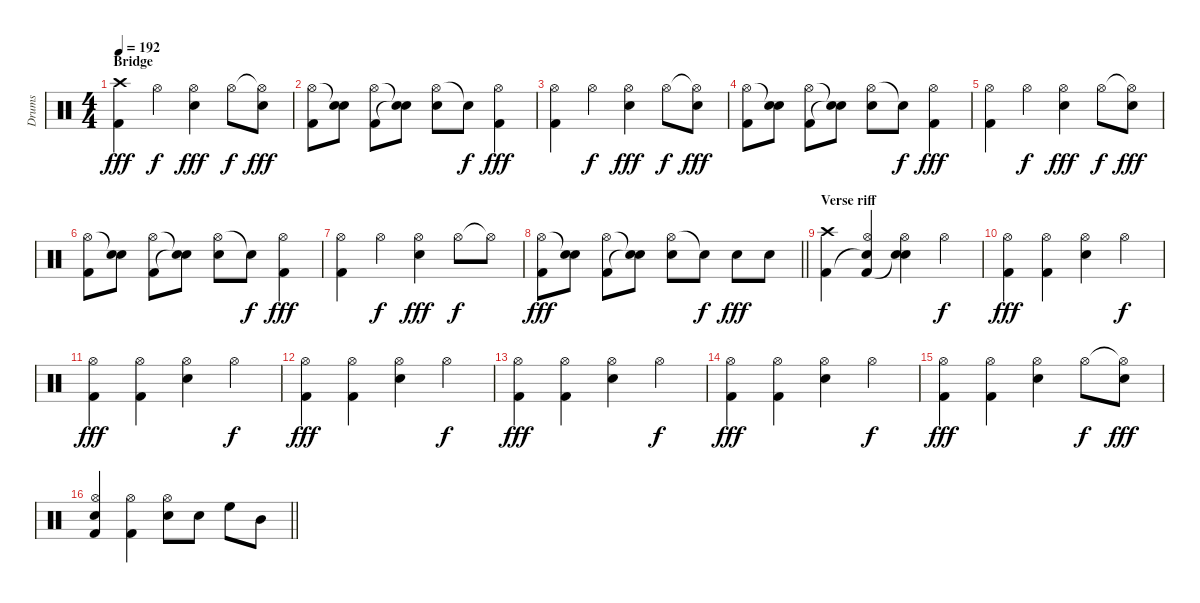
\track ("Drums" "Drums") {instrument percussion}
\staff {score}
\articulation defaults
\ts (4 4)
\section ("" "Bridge")
\tempo 192
\clef neutral
\ks c
("Crash high (hit)" "Kick (hit) 2").4{dy fff} "Hi-Hat (open)".4{dy f} ("Hi-Hat (open)" "Snare (hit) 2").4{dy fff} "Hi-Hat (open)".8{dy f} ("Hi-Hat (open)"{t} "Snare (hit) 2").8{dy fff} |
("Hi-Hat (open)" "Kick (hit) 2").8 ("Snare (hit)"{t} "Snare (hit) 2").8 ("Hi-Hat (open)" "Kick (hit) 2").8 ("Snare (hit)"{t} "Snare (hit)"{t}).8 ("Hi-Hat (open)" "Snare (hit) 2").8 "Snare (hit)"{t}.8{dy f} ("Hi-Hat (open)" "Kick (hit) 2").4{dy fff} |
("Hi-Hat (open)" "Kick (hit) 2").4 "Hi-Hat (open)".4{dy f} ("Hi-Hat (open)" "Snare (hit) 2").4{dy fff} "Hi-Hat (open)".8{dy f} ("Hi-Hat (open)"{t} "Snare (hit) 2").8{dy fff} |
("Hi-Hat (open)" "Kick (hit) 2").8 ("Snare (hit)"{t} "Snare (hit) 2").8 ("Hi-Hat (open)" "Kick (hit) 2").8 ("Snare (hit)"{t} "Snare (hit)"{t}).8 ("Hi-Hat (open)" "Snare (hit) 2").8 "Snare (hit)"{t}.8{dy f} ("Hi-Hat (open)" "Kick (hit) 2").4{dy fff} |
("Hi-Hat (open)" "Kick (hit) 2").4 "Hi-Hat (open)".4{dy f} ("Hi-Hat (open)" "Snare (hit) 2").4{dy fff} "Hi-Hat (open)".8{dy f} ("Hi-Hat (open)"{t} "Snare (hit) 2").8{dy fff} |
("Hi-Hat (open)" "Kick (hit) 2").8 ("Snare (hit)"{t} "Snare (hit) 2").8 ("Hi-Hat (open)" "Kick (hit) 2").8 ("Snare (hit)"{t} "Snare (hit)"{t}).8 ("Hi-Hat (open)" "Snare (hit) 2").8 "Snare (hit)"{t}.8{dy f} ("Hi-Hat (open)" "Kick (hit) 2").4{dy fff} |
("Hi-Hat (open)" "Kick (hit) 2").4 "Hi-Hat (open)".4{dy f} ("Hi-Hat (open)" "Snare (hit) 2").4{dy fff} "Hi-Hat (open)".8{dy f} "Hi-Hat (open)"{t}.8 |
\barLineRight lightlight
("Hi-Hat (open)" "Kick (hit) 2").8{dy fff} ("Snare (hit)"{t} "Snare (hit) 2").8 ("Hi-Hat (open)" "Kick (hit) 2").8 ("Snare (hit)"{t} "Snare (hit)"{t}).8 ("Hi-Hat (open)" "Snare (hit) 2").8 "Snare (hit)"{t}.8{dy f} "Snare (hit) 2".8{dy fff} "Snare (hit) 2".8 |
\section ("" "Verse riff")
("Crash high (hit)" "Kick (hit) 2").4 ("Hi-Hat (open)" "Snare (hit)"{t} "Kick (hit) 2").4 ("Hi-Hat (open)" "Snare (hit) 2" "Snare (hit)"{t}).4 "Hi-Hat (open)".4{dy f} |
("Hi-Hat (open)" "Kick (hit) 2").4{dy fff} ("Hi-Hat (open)" "Kick (hit) 2").4 ("Hi-Hat (open)" "Snare (hit) 2").4 "Hi-Hat (open)".4{dy f} |
("Hi-Hat (open)" "Kick (hit) 2").4{dy fff} ("Hi-Hat (open)" "Kick (hit) 2").4 ("Hi-Hat (open)" "Snare (hit) 2").4 "Hi-Hat (open)".4{dy f} |
("Hi-Hat (open)" "Kick (hit) 2").4{dy fff} ("Hi-Hat (open)" "Kick (hit) 2").4 ("Hi-Hat (open)" "Snare (hit) 2").4 "Hi-Hat (open)".4{dy f} |
("Hi-Hat (open)" "Kick (hit) 2").4{dy fff} ("Hi-Hat (open)" "Kick (hit) 2").4 ("Hi-Hat (open)" "Snare (hit) 2").4 "Hi-Hat (open)".4{dy f} |
("Hi-Hat (open)" "Kick (hit) 2").4{dy fff} ("Hi-Hat (open)" "Kick (hit) 2").4 ("Hi-Hat (open)" "Snare (hit) 2").4 "Hi-Hat (open)".4{dy f} |
("Hi-Hat (open)" "Kick (hit) 2").4{dy fff} ("Hi-Hat (open)" "Kick (hit) 2").4 ("Hi-Hat (open)" "Snare (hit) 2").4 "Hi-Hat (open)".8{dy f} ("Hi-Hat (open)"{t} "Snare (hit) 2").8{dy fff} |
\barLineRight lightlight
("Hi-Hat (open)" "Snare (hit) 2" "Kick (hit) 2").4 ("Hi-Hat (open)" "Kick (hit) 2").4 ("Hi-Hat (open)" "Snare (hit) 2").8 "Snare (hit) 2".8 "High Floor Tom (hit)".8 "Mid Tom (hit)".8
